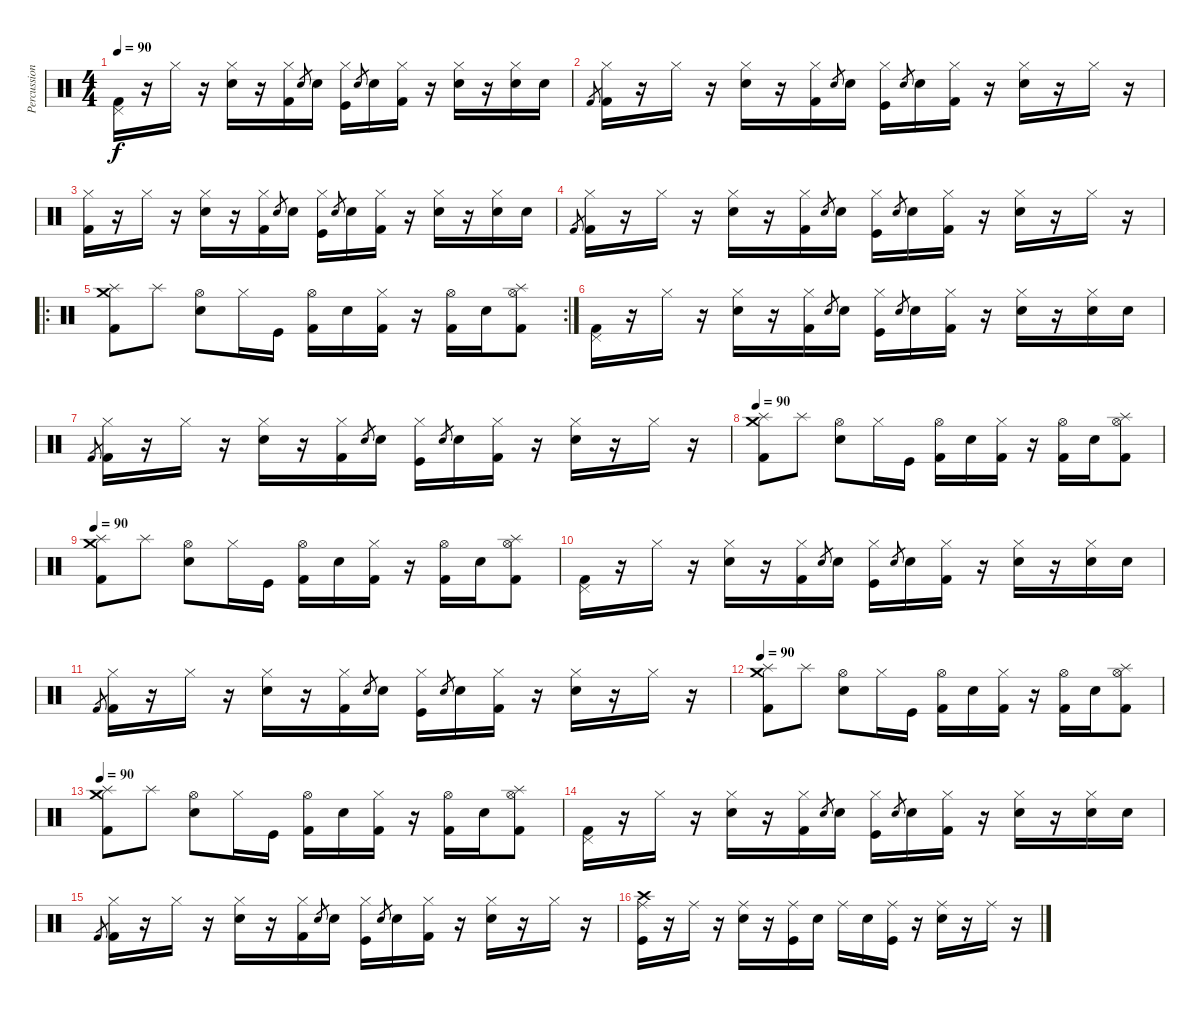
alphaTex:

\track ("Percussions" "Percussion") {instrument percussion}
\staff {score}
\articulation defaults
\ts (4 4)
\tempo 90
\clef neutral
\ks c
("Pedal Hi-Hat (hit)" "Kick (hit) 2").16{dy f} r.16 "Hi-Hat (closed)".16 r.16 ("Hi-Hat (closed)" "Electric Snare (hit)").16 r.16 ("Hi-Hat (closed)" "Kick (hit) 2").16 "Electric Snare (hit)".8{gr} "Electric Snare (hit)".16 ("Hi-Hat (closed)" "Kick (hit)").16 "Electric Snare (hit)".8{gr} "Electric Snare (hit)".16 ("Hi-Hat (closed)" "Kick (hit) 2").16 r.16 ("Hi-Hat (closed)" "Electric Snare (hit)").16 r.16 ("Hi-Hat (closed)" "Electric Snare (hit)").16 "Electric Snare (hit)".16 |
"Kick (hit) 2".8{gr} ("Hi-Hat (closed)" "Kick (hit) 2").16 r.16 "Hi-Hat (closed)".16 r.16 ("Hi-Hat (closed)" "Electric Snare (hit)").16 r.16 ("Hi-Hat (closed)" "Kick (hit) 2").16 "Electric Snare (hit)".8{gr} "Electric Snare (hit)".16 ("Hi-Hat (closed)" "Kick (hit)").16 "Electric Snare (hit)".8{gr} "Electric Snare (hit)".16 ("Hi-Hat (closed)" "Kick (hit) 2").16 r.16 ("Hi-Hat (closed)" "Electric Snare (hit)").16 r.16 "Hi-Hat (closed)".16 r.16 |
("Hi-Hat (closed)" "Kick (hit) 2").16 r.16 "Hi-Hat (closed)".16 r.16 ("Hi-Hat (closed)" "Electric Snare (hit)").16 r.16 ("Hi-Hat (closed)" "Kick (hit) 2").16 "Electric Snare (hit)".8{gr} "Electric Snare (hit)".16 ("Hi-Hat (closed)" "Kick (hit)").16 "Electric Snare (hit)".8{gr} "Electric Snare (hit)".16 ("Hi-Hat (closed)" "Kick (hit) 2").16 r.16 ("Hi-Hat (closed)" "Electric Snare (hit)").16 r.16 ("Hi-Hat (closed)" "Electric Snare (hit)").16 "Electric Snare (hit)".16 |
"Kick (hit) 2".8{gr} ("Hi-Hat (closed)" "Kick (hit) 2").16 r.16 "Hi-Hat (closed)".16 r.16 ("Hi-Hat (closed)" "Electric Snare (hit)").16 r.16 ("Hi-Hat (closed)" "Kick (hit) 2").16 "Electric Snare (hit)".8{gr} "Electric Snare (hit)".16 ("Hi-Hat (closed)" "Kick (hit)").16 "Electric Snare (hit)".8{gr} "Electric Snare (hit)".16 ("Hi-Hat (closed)" "Kick (hit) 2").16 r.16 ("Hi-Hat (closed)" "Electric Snare (hit)").16 r.16 "Hi-Hat (closed)".16 r.16 |
\ro
\rc 2
("Splash (hit)" "Crash medium (hit)" "Kick (hit) 2").8 "Splash (hit)".8 ("Hi-Hat (open)" "Electric Snare (hit)").8 "Hi-Hat (closed)".16 "Kick (hit)".16 ("Hi-Hat (open)" "Kick (hit) 2").16 "Electric Snare (hit)".16 ("Hi-Hat (closed)" "Kick (hit) 2").16 r.16 ("Hi-Hat (open)" "Kick (hit) 2").16 "Electric Snare (hit)".16 ("Hi-Hat (open)" "Splash (hit)" "Kick (hit) 2").8 |
("Pedal Hi-Hat (hit)" "Kick (hit) 2").16 r.16 "Hi-Hat (closed)".16 r.16 ("Hi-Hat (closed)" "Electric Snare (hit)").16 r.16 ("Hi-Hat (closed)" "Kick (hit) 2").16 "Electric Snare (hit)".8{gr} "Electric Snare (hit)".16 ("Hi-Hat (closed)" "Kick (hit)").16 "Electric Snare (hit)".8{gr} "Electric Snare (hit)".16 ("Hi-Hat (closed)" "Kick (hit) 2").16 r.16 ("Hi-Hat (closed)" "Electric Snare (hit)").16 r.16 ("Hi-Hat (closed)" "Electric Snare (hit)").16 "Electric Snare (hit)".16 |
"Kick (hit) 2".8{gr} ("Hi-Hat (closed)" "Kick (hit) 2").16 r.16 "Hi-Hat (closed)".16 r.16 ("Hi-Hat (closed)" "Electric Snare (hit)").16 r.16 ("Hi-Hat (closed)" "Kick (hit) 2").16 "Electric Snare (hit)".8{gr} "Electric Snare (hit)".16 ("Hi-Hat (closed)" "Kick (hit)").16 "Electric Snare (hit)".8{gr} "Electric Snare (hit)".16 ("Hi-Hat (closed)" "Kick (hit) 2").16 r.16 ("Hi-Hat (closed)" "Electric Snare (hit)").16 r.16 "Hi-Hat (closed)".16 r.16 |
\tempo 90
("Splash (hit)" "Crash medium (hit)" "Kick (hit) 2").8 "Splash (hit)".8 ("Hi-Hat (open)" "Electric Snare (hit)").8 "Hi-Hat (closed)".16 "Kick (hit)".16 ("Hi-Hat (open)" "Kick (hit) 2").16 "Electric Snare (hit)".16 ("Hi-Hat (closed)" "Kick (hit) 2").16 r.16 ("Hi-Hat (open)" "Kick (hit) 2").16 "Electric Snare (hit)".16 ("Hi-Hat (open)" "Splash (hit)" "Kick (hit) 2").8 |
\tempo 90
("Splash (hit)" "Crash medium (hit)" "Kick (hit) 2").8 "Splash (hit)".8 ("Hi-Hat (open)" "Electric Snare (hit)").8 "Hi-Hat (closed)".16 "Kick (hit)".16 ("Hi-Hat (open)" "Kick (hit) 2").16 "Electric Snare (hit)".16 ("Hi-Hat (closed)" "Kick (hit) 2").16 r.16 ("Hi-Hat (open)" "Kick (hit) 2").16 "Electric Snare (hit)".16 ("Hi-Hat (open)" "Splash (hit)" "Kick (hit) 2").8 |
("Pedal Hi-Hat (hit)" "Kick (hit) 2").16 r.16 "Hi-Hat (closed)".16 r.16 ("Hi-Hat (closed)" "Electric Snare (hit)").16 r.16 ("Hi-Hat (closed)" "Kick (hit) 2").16 "Electric Snare (hit)".8{gr} "Electric Snare (hit)".16 ("Hi-Hat (closed)" "Kick (hit)").16 "Electric Snare (hit)".8{gr} "Electric Snare (hit)".16 ("Hi-Hat (closed)" "Kick (hit) 2").16 r.16 ("Hi-Hat (closed)" "Electric Snare (hit)").16 r.16 ("Hi-Hat (closed)" "Electric Snare (hit)").16 "Electric Snare (hit)".16 |
"Kick (hit) 2".8{gr} ("Hi-Hat (closed)" "Kick (hit) 2").16 r.16 "Hi-Hat (closed)".16 r.16 ("Hi-Hat (closed)" "Electric Snare (hit)").16 r.16 ("Hi-Hat (closed)" "Kick (hit) 2").16 "Electric Snare (hit)".8{gr} "Electric Snare (hit)".16 ("Hi-Hat (closed)" "Kick (hit)").16 "Electric Snare (hit)".8{gr} "Electric Snare (hit)".16 ("Hi-Hat (closed)" "Kick (hit) 2").16 r.16 ("Hi-Hat (closed)" "Electric Snare (hit)").16 r.16 "Hi-Hat (closed)".16 r.16 |
\tempo 90
("Splash (hit)" "Crash medium (hit)" "Kick (hit) 2").8 "Splash (hit)".8 ("Hi-Hat (open)" "Electric Snare (hit)").8 "Hi-Hat (closed)".16 "Kick (hit)".16 ("Hi-Hat (open)" "Kick (hit) 2").16 "Electric Snare (hit)".16 ("Hi-Hat (closed)" "Kick (hit) 2").16 r.16 ("Hi-Hat (open)" "Kick (hit) 2").16 "Electric Snare (hit)".16 ("Hi-Hat (open)" "Splash (hit)" "Kick (hit) 2").8 |
\tempo 90
("Splash (hit)" "Crash medium (hit)" "Kick (hit) 2").8 "Splash (hit)".8 ("Hi-Hat (open)" "Electric Snare (hit)").8 "Hi-Hat (closed)".16 "Kick (hit)".16 ("Hi-Hat (open)" "Kick (hit) 2").16 "Electric Snare (hit)".16 ("Hi-Hat (closed)" "Kick (hit) 2").16 r.16 ("Hi-Hat (open)" "Kick (hit) 2").16 "Electric Snare (hit)".16 ("Hi-Hat (open)" "Splash (hit)" "Kick (hit) 2").8 |
("Pedal Hi-Hat (hit)" "Kick (hit) 2").16 r.16 "Hi-Hat (closed)".16 r.16 ("Hi-Hat (closed)" "Electric Snare (hit)").16 r.16 ("Hi-Hat (closed)" "Kick (hit) 2").16 "Electric Snare (hit)".8{gr} "Electric Snare (hit)".16 ("Hi-Hat (closed)" "Kick (hit)").16 "Electric Snare (hit)".8{gr} "Electric Snare (hit)".16 ("Hi-Hat (closed)" "Kick (hit) 2").16 r.16 ("Hi-Hat (closed)" "Electric Snare (hit)").16 r.16 ("Hi-Hat (closed)" "Electric Snare (hit)").16 "Electric Snare (hit)".16 |
"Kick (hit) 2".8{gr} ("Hi-Hat (closed)" "Kick (hit) 2").16 r.16 "Hi-Hat (closed)".16 r.16 ("Hi-Hat (closed)" "Electric Snare (hit)").16 r.16 ("Hi-Hat (closed)" "Kick (hit) 2").16 "Electric Snare (hit)".8{gr} "Electric Snare (hit)".16 ("Hi-Hat (closed)" "Kick (hit)").16 "Electric Snare (hit)".8{gr} "Electric Snare (hit)".16 ("Hi-Hat (closed)" "Kick (hit) 2").16 r.16 ("Hi-Hat (closed)" "Electric Snare (hit)").16 r.16 "Hi-Hat (closed)".16 r.16 |
("Ride (middle)" "Crash high (hit)" "Kick (hit)").16 r.16 "Ride (middle)".16 r.16 ("Ride (middle)" "Electric Snare (hit)").16 r.16 ("Ride (middle)" "Kick (hit)").16 "Electric Snare (hit)".16 "Ride (middle)".16 "Electric Snare (hit)".16 ("Ride (middle)" "Kick (hit)").16 r.16 ("Ride (middle)" "Electric Snare (hit)").16 r.16 "Ride (middle)".16 r.16
